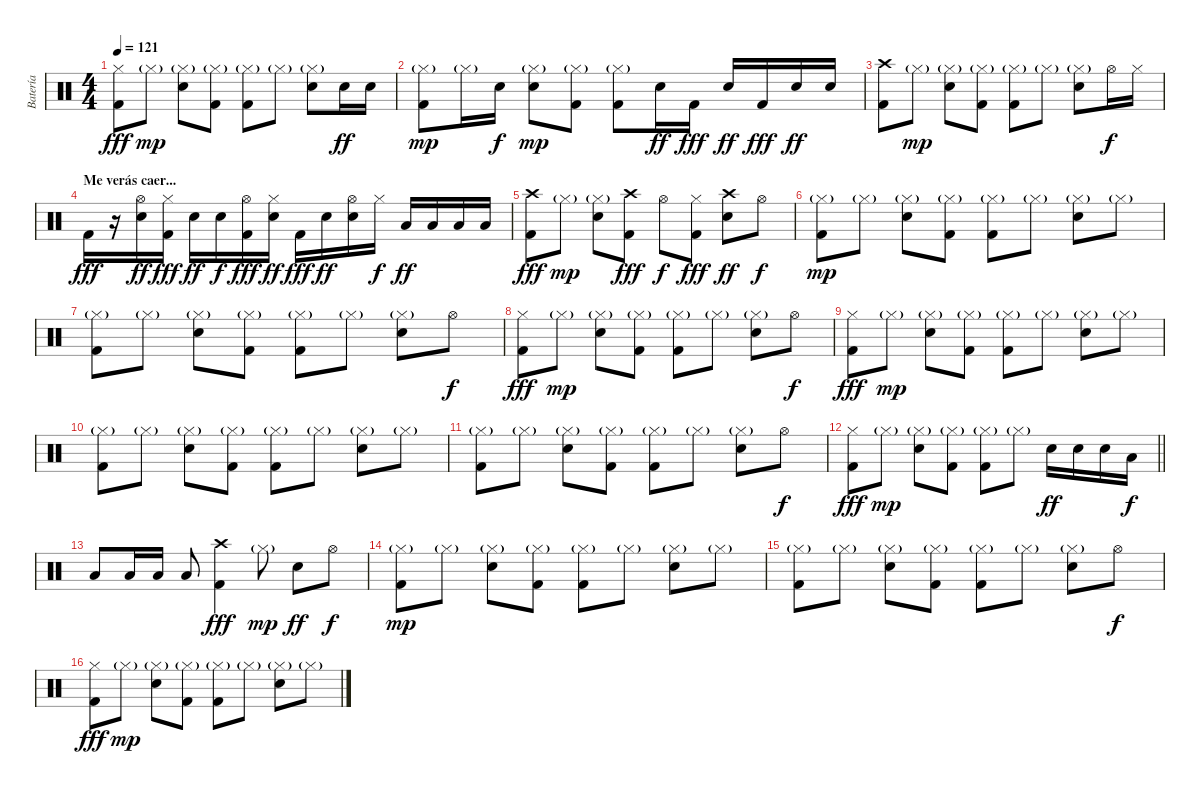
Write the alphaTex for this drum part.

\track ("Batería" "Batería") {instrument percussion}
\staff {score}
\articulation defaults
\ts (4 4)
\tempo 121
\clef neutral
\ks c
("Kick (hit) 2" "Hi-Hat (closed)").8{dy fff} "Hi-Hat (closed)"{g}.8{dy mp} ("Snare (hit) 2" "Hi-Hat (closed)"{g}).8 ("Kick (hit) 2" "Hi-Hat (closed)"{g}).8 ("Kick (hit) 2" "Hi-Hat (closed)"{g}).8 "Hi-Hat (closed)"{g}.8 ("Snare (hit) 2" "Hi-Hat (closed)"{g}).8 "Snare (hit) 2".16{dy ff} "Snare (hit) 2".16 |
("Kick (hit) 2" "Hi-Hat (closed)"{g}).8{dy mp} "Hi-Hat (closed)"{g}.16 "Snare (hit) 2".16{dy f} ("Snare (hit) 2" "Hi-Hat (closed)"{g}).8{dy mp} ("Kick (hit) 2" "Hi-Hat (closed)"{g}).8 ("Kick (hit) 2" "Hi-Hat (closed)"{g}).8 "Snare (hit) 2".16{dy ff} "Kick (hit) 2".16{dy fff} "Snare (hit) 2".16{dy ff} "Kick (hit) 2".16{dy fff} "Snare (hit) 2".16{dy ff} "Snare (hit) 2".16 |
("Kick (hit) 2" "Crash high (hit)").8 "Hi-Hat (closed)"{g}.8{dy mp} ("Snare (hit) 2" "Hi-Hat (closed)"{g}).8 ("Kick (hit) 2" "Hi-Hat (closed)"{g}).8 ("Kick (hit) 2" "Hi-Hat (closed)"{g}).8 "Hi-Hat (closed)"{g}.8 ("Snare (hit) 2" "Hi-Hat (closed)"{g}).8 "Hi-Hat (open)".16{dy f} "Hi-Hat (closed)".16 |
\section ("" "Me verás caer...")
"Kick (hit) 2".16{dy fff} r.16 ("Snare (hit) 2" "Hi-Hat (open)").16{dy ff} ("Kick (hit) 2" "Hi-Hat (closed)").16{dy fff} "Snare (hit) 2".16{dy ff} "Snare (hit) 2".16{dy f} ("Kick (hit) 2" "Hi-Hat (open)").16{dy fff} ("Snare (hit) 2" "Hi-Hat (closed)").16{dy ff} "Kick (hit) 2".16{dy fff} "Snare (hit) 2".16{dy ff} ("Snare (hit) 2" "Hi-Hat (open)").16 "Hi-Hat (closed)".16{dy f} "Low Tom (hit)".16{dy ff} "Low Tom (hit)".16 "Low Floor Tom (hit)".16 "Low Floor Tom (hit)".16 |
("Kick (hit) 2" "Crash high (hit)").8{dy fff} "Hi-Hat (closed)"{g}.8{dy mp} ("Snare (hit) 2" "Hi-Hat (closed)"{g}).8 ("Kick (hit) 2" "Crash high (hit)").8{dy fff} "Hi-Hat (open)".8{dy f} ("Kick (hit) 2" "Hi-Hat (closed)").8{dy fff} ("Snare (hit) 2" "Crash high (hit)").8{dy ff} "Hi-Hat (open)".8{dy f} |
("Kick (hit) 2" "Hi-Hat (closed)"{g}).8{dy mp} "Hi-Hat (closed)"{g}.8 ("Snare (hit) 2" "Hi-Hat (closed)"{g}).8 ("Kick (hit) 2" "Hi-Hat (closed)"{g}).8 ("Kick (hit) 2" "Hi-Hat (closed)"{g}).8 "Hi-Hat (closed)"{g}.8 ("Snare (hit) 2" "Hi-Hat (closed)"{g}).8 "Hi-Hat (closed)"{g}.8 |
("Kick (hit) 2" "Hi-Hat (closed)"{g}).8 "Hi-Hat (closed)"{g}.8 ("Snare (hit) 2" "Hi-Hat (closed)"{g}).8 ("Kick (hit) 2" "Hi-Hat (closed)"{g}).8 ("Kick (hit) 2" "Hi-Hat (closed)"{g}).8 "Hi-Hat (closed)"{g}.8 ("Snare (hit) 2" "Hi-Hat (closed)"{g}).8 "Hi-Hat (open)".8{dy f} |
("Kick (hit) 2" "Hi-Hat (closed)").8{dy fff} "Hi-Hat (closed)"{g}.8{dy mp} ("Snare (hit) 2" "Hi-Hat (closed)"{g}).8 ("Kick (hit) 2" "Hi-Hat (closed)"{g}).8 ("Kick (hit) 2" "Hi-Hat (closed)"{g}).8 "Hi-Hat (closed)"{g}.8 ("Snare (hit) 2" "Hi-Hat (closed)"{g}).8 "Hi-Hat (open)".8{dy f} |
("Kick (hit) 2" "Hi-Hat (closed)").8{dy fff} "Hi-Hat (closed)"{g}.8{dy mp} ("Snare (hit) 2" "Hi-Hat (closed)"{g}).8 ("Kick (hit) 2" "Hi-Hat (closed)"{g}).8 ("Kick (hit) 2" "Hi-Hat (closed)"{g}).8 "Hi-Hat (closed)"{g}.8 ("Snare (hit) 2" "Hi-Hat (closed)"{g}).8 "Hi-Hat (closed)"{g}.8 |
("Kick (hit) 2" "Hi-Hat (closed)"{g}).8 "Hi-Hat (closed)"{g}.8 ("Snare (hit) 2" "Hi-Hat (closed)"{g}).8 ("Kick (hit) 2" "Hi-Hat (closed)"{g}).8 ("Kick (hit) 2" "Hi-Hat (closed)"{g}).8 "Hi-Hat (closed)"{g}.8 ("Snare (hit) 2" "Hi-Hat (closed)"{g}).8 "Hi-Hat (closed)"{g}.8 |
("Kick (hit) 2" "Hi-Hat (closed)"{g}).8 "Hi-Hat (closed)"{g}.8 ("Snare (hit) 2" "Hi-Hat (closed)"{g}).8 ("Kick (hit) 2" "Hi-Hat (closed)"{g}).8 ("Kick (hit) 2" "Hi-Hat (closed)"{g}).8 "Hi-Hat (closed)"{g}.8 ("Snare (hit) 2" "Hi-Hat (closed)"{g}).8 "Hi-Hat (open)".8{dy f} |
\barLineRight lightlight
("Kick (hit) 2" "Hi-Hat (closed)").8{dy fff} "Hi-Hat (closed)"{g}.8{dy mp} ("Snare (hit) 2" "Hi-Hat (closed)"{g}).8 ("Kick (hit) 2" "Hi-Hat (closed)"{g}).8 ("Kick (hit) 2" "Hi-Hat (closed)"{g}).8 "Hi-Hat (closed)"{g}.8 "Snare (hit) 2".16{dy ff} "Snare (hit) 2".16 "Snare (hit) 2".16 "Low Tom (hit)".16{dy f} |
"Low Tom (hit)".8 "Low Floor Tom (hit)".16 "Low Floor Tom (hit)".16 "Low Floor Tom (hit)".8 ("Kick (hit) 2" "Crash high (hit)").4{dy fff} "Hi-Hat (closed)"{g}.8{dy mp} "Snare (hit) 2".8{dy ff} "Hi-Hat (open)".8{dy f} |
("Kick (hit) 2" "Hi-Hat (closed)"{g}).8{dy mp} "Hi-Hat (closed)"{g}.8 ("Snare (hit) 2" "Hi-Hat (closed)"{g}).8 ("Kick (hit) 2" "Hi-Hat (closed)"{g}).8 ("Kick (hit) 2" "Hi-Hat (closed)"{g}).8 "Hi-Hat (closed)"{g}.8 ("Snare (hit) 2" "Hi-Hat (closed)"{g}).8 "Hi-Hat (closed)"{g}.8 |
("Kick (hit) 2" "Hi-Hat (closed)"{g}).8 "Hi-Hat (closed)"{g}.8 ("Snare (hit) 2" "Hi-Hat (closed)"{g}).8 ("Kick (hit) 2" "Hi-Hat (closed)"{g}).8 ("Kick (hit) 2" "Hi-Hat (closed)"{g}).8 "Hi-Hat (closed)"{g}.8 ("Snare (hit) 2" "Hi-Hat (closed)"{g}).8 "Hi-Hat (open)".8{dy f} |
("Kick (hit) 2" "Hi-Hat (closed)").8{dy fff} "Hi-Hat (closed)"{g}.8{dy mp} ("Snare (hit) 2" "Hi-Hat (closed)"{g}).8 ("Kick (hit) 2" "Hi-Hat (closed)"{g}).8 ("Kick (hit) 2" "Hi-Hat (closed)"{g}).8 "Hi-Hat (closed)"{g}.8 ("Snare (hit) 2" "Hi-Hat (closed)"{g}).8 "Hi-Hat (closed)"{g}.8
